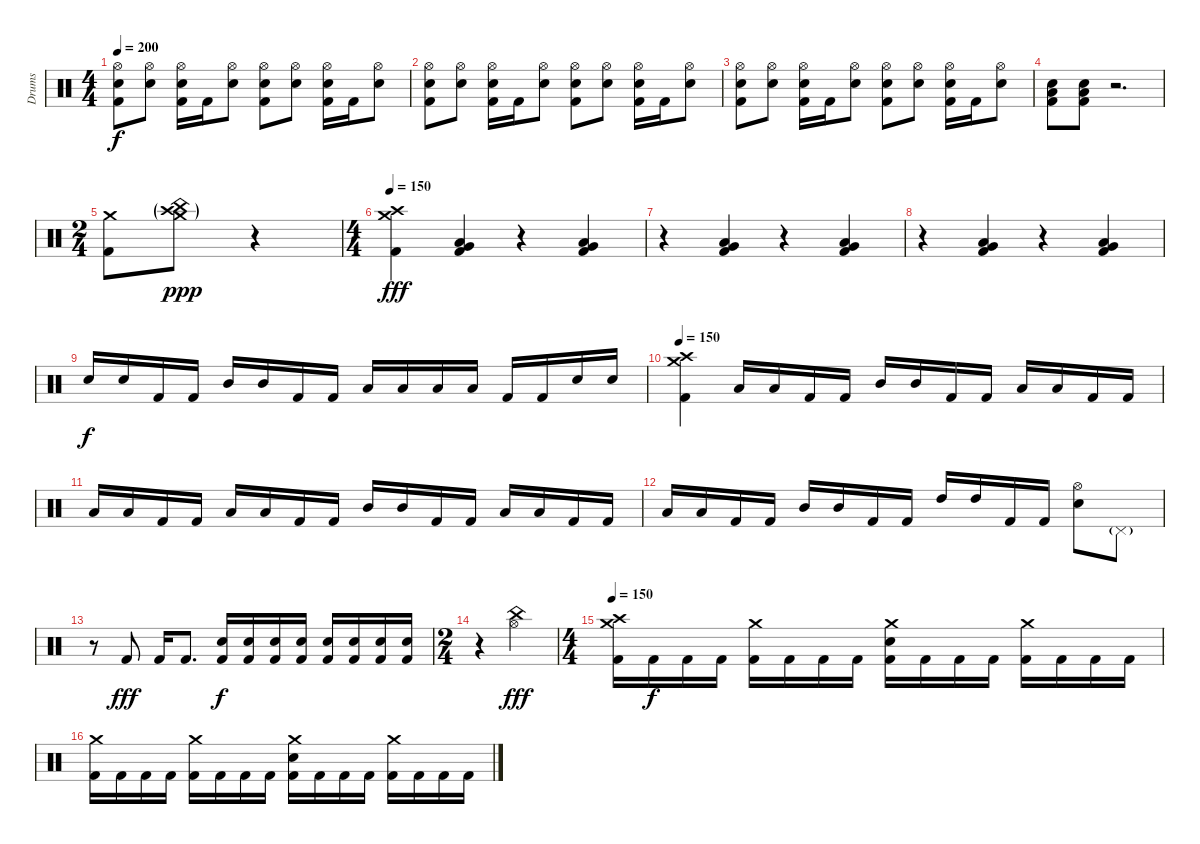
\track ("Drums" "Drums") {instrument percussion}
\staff {score}
\articulation defaults
\ts (4 4)
\tempo 200
\clef neutral
\ks c
("Hi-Hat (open)" "Electric Snare (hit)" "Kick (hit) 2").8{dy f} ("Hi-Hat (open)" "Electric Snare (hit)").8 ("Hi-Hat (open)" "Electric Snare (hit)" "Kick (hit) 2").16 "Kick (hit) 2".16 ("Hi-Hat (open)" "Electric Snare (hit)").8 ("Hi-Hat (open)" "Electric Snare (hit)" "Kick (hit) 2").8 ("Hi-Hat (open)" "Electric Snare (hit)").8 ("Hi-Hat (open)" "Electric Snare (hit)" "Kick (hit) 2").16 "Kick (hit) 2".16 ("Hi-Hat (open)" "Electric Snare (hit)").8 |
("Hi-Hat (open)" "Electric Snare (hit)" "Kick (hit) 2").8 ("Hi-Hat (open)" "Electric Snare (hit)").8 ("Hi-Hat (open)" "Electric Snare (hit)" "Kick (hit) 2").16 "Kick (hit) 2".16 ("Hi-Hat (open)" "Electric Snare (hit)").8 ("Hi-Hat (open)" "Electric Snare (hit)" "Kick (hit) 2").8 ("Hi-Hat (open)" "Electric Snare (hit)").8 ("Hi-Hat (open)" "Electric Snare (hit)" "Kick (hit) 2").16 "Kick (hit) 2".16 ("Hi-Hat (open)" "Electric Snare (hit)").8 |
("Hi-Hat (open)" "Electric Snare (hit)" "Kick (hit) 2").8 ("Hi-Hat (open)" "Electric Snare (hit)").8 ("Hi-Hat (open)" "Electric Snare (hit)" "Kick (hit) 2").16 "Kick (hit) 2".16 ("Hi-Hat (open)" "Electric Snare (hit)").8 ("Hi-Hat (open)" "Electric Snare (hit)" "Kick (hit) 2").8 ("Hi-Hat (open)" "Electric Snare (hit)").8 ("Hi-Hat (open)" "Electric Snare (hit)" "Kick (hit) 2").16 "Kick (hit) 2".16 ("Hi-Hat (open)" "Electric Snare (hit)").8 |
("Low Floor Tom (hit)" "Electric Snare (hit)" "Kick (hit) 2").8 ("Low Floor Tom (hit)" "Electric Snare (hit)" "Kick (hit) 2").8 r.2{d} |
\ts (2 4)
("Crash medium (hit)" "Kick (hit) 2").8 ("Crash medium (hit)"{g} "Crash high (hit)"{g} "China (hit)"{g}).8{dy ppp} r.4{volume 0} |
\ts (4 4)
\tempo 150
("Crash medium (hit)" "Crash high (hit)" "Kick (hit) 2").4{dy fff volume 16} ("Very Low Tom (hit)" "Low Tom (hit)" "Kick (hit) 2").4 r.4 ("Very Low Tom (hit)" "Low Tom (hit)" "Kick (hit) 2").4 |
r.4 ("Very Low Tom (hit)" "Low Tom (hit)" "Kick (hit) 2").4 r.4 ("Very Low Tom (hit)" "Low Tom (hit)" "Kick (hit) 2").4 |
r.4 ("Very Low Tom (hit)" "Low Tom (hit)" "Kick (hit) 2").4 r.4 ("Very Low Tom (hit)" "Low Tom (hit)" "Kick (hit) 2").4 |
"Electric Snare (hit)".16{dy f} "Electric Snare (hit)".16 "Kick (hit) 2".16 "Kick (hit) 2".16 "Mid Tom (hit)".16 "Mid Tom (hit)".16 "Kick (hit) 2".16 "Kick (hit) 2".16 "Low Tom (hit)".16 "Low Tom (hit)".16 "Low Tom (hit)".16 "Low Tom (hit)".16 "Kick (hit) 2".16 "Kick (hit) 2".16 "Electric Snare (hit)".16 "Electric Snare (hit)".16 |
\tempo 150
("Crash medium (hit)" "Crash high (hit)" "Kick (hit) 2").4 "Low Tom (hit)".16 "Low Tom (hit)".16 "Kick (hit) 2".16 "Kick (hit) 2".16 "Mid Tom (hit)".16 "Mid Tom (hit)".16 "Kick (hit) 2".16 "Kick (hit) 2".16 "Low Tom (hit)".16 "Low Tom (hit)".16 "Kick (hit) 2".16 "Kick (hit) 2".16 |
"Low Tom (hit)".16 "Low Tom (hit)".16 "Kick (hit) 2".16 "Kick (hit) 2".16 "Low Tom (hit)".16 "Low Tom (hit)".16 "Kick (hit) 2".16 "Kick (hit) 2".16 "Mid Tom (hit)".16 "Mid Tom (hit)".16 "Kick (hit) 2".16 "Kick (hit) 2".16 "Low Tom (hit)".16 "Low Tom (hit)".16 "Kick (hit) 2".16 "Kick (hit) 2".16 |
"Low Tom (hit)".16 "Low Tom (hit)".16 "Kick (hit) 2".16 "Kick (hit) 2".16 "Mid Tom (hit)".16 "Mid Tom (hit)".16 "Kick (hit) 2".16 "Kick (hit) 2".16 "High Tom (hit)".16 "High Tom (hit)".16 "Kick (hit) 2".16 "Kick (hit) 2".16 ("Hi-Hat (open)" "Electric Snare (hit)").8 "Pedal Hi-Hat (hit)"{g}.8 |
r.8 "Kick (hit) 2".8{dy fff} "Kick (hit) 2".16 "Kick (hit) 2".8{d} ("Electric Snare (hit)" "Kick (hit) 2").16{dy f} ("Electric Snare (hit)" "Kick (hit) 2").16 ("Electric Snare (hit)" "Kick (hit) 2").16 ("Electric Snare (hit)" "Kick (hit) 2").16 ("Electric Snare (hit)" "Kick (hit) 2").16 ("Electric Snare (hit)" "Kick (hit) 2").16 ("Electric Snare (hit)" "Kick (hit) 2").16 ("Electric Snare (hit)" "Kick (hit) 2").16 |
\ts (2 4)
r.4 ("China (hit)" "Hi-Hat (open)").4{dy fff} |
\ts (4 4)
\tempo 150
("Crash medium (hit)" "Crash high (hit)" "Kick (hit) 2").16 "Kick (hit) 2".16{dy f} "Kick (hit) 2".16 "Kick (hit) 2".16 ("Crash medium (hit)" "Kick (hit) 2").16 "Kick (hit) 2".16 "Kick (hit) 2".16 "Kick (hit) 2".16 ("Crash medium (hit)" "Electric Snare (hit)" "Kick (hit) 2").16 "Kick (hit) 2".16 "Kick (hit) 2".16 "Kick (hit) 2".16 ("Crash medium (hit)" "Kick (hit) 2").16 "Kick (hit) 2".16 "Kick (hit) 2".16 "Kick (hit) 2".16 |
("Crash medium (hit)" "Kick (hit) 2").16 "Kick (hit) 2".16 "Kick (hit) 2".16 "Kick (hit) 2".16 ("Crash medium (hit)" "Kick (hit) 2").16 "Kick (hit) 2".16 "Kick (hit) 2".16 "Kick (hit) 2".16 ("Crash medium (hit)" "Electric Snare (hit)" "Kick (hit) 2").16 "Kick (hit) 2".16 "Kick (hit) 2".16 "Kick (hit) 2".16 ("Crash medium (hit)" "Kick (hit) 2").16 "Kick (hit) 2".16 "Kick (hit) 2".16 "Kick (hit) 2".16
